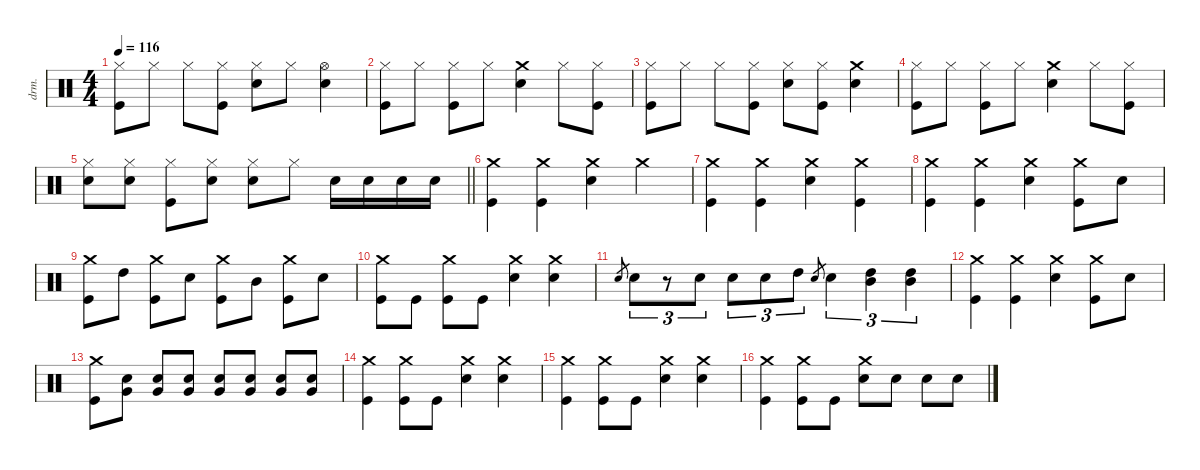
\defaultSystemsLayout 4
\hideDynamics
\bracketExtendMode nobrackets
\otherSystemsTrackNameOrientation horizontal
\track ("Drum" "drm.") {instrument percussion}
\staff {score}
\articulation defaults
\ts (4 4)
\tempo 116
\clef neutral
\ks c
("Kick (hit)" "Hi-Hat (closed)").8{dy f beam Down} "Hi-Hat (closed)".8{beam Down} "Hi-Hat (closed)".8{beam Down} ("Kick (hit)" "Hi-Hat (closed)").8{beam Down} ("Snare (hit) 2" "Hi-Hat (closed)").8{beam Down} "Hi-Hat (closed)".8{beam Down} ("Snare (hit) 2" "Hi-Hat (open)").4{beam Down} |
("Kick (hit)" "Hi-Hat (closed)").8{beam Down} "Hi-Hat (closed)".8{beam Down} ("Kick (hit)" "Hi-Hat (closed)").8{beam Down} "Hi-Hat (closed)".8{beam Down} ("Snare (hit) 2" "Crash medium (hit)").4{beam Down} "Hi-Hat (closed)".8{beam Down} ("Kick (hit)" "Hi-Hat (closed)").8{beam Down} |
("Kick (hit)" "Hi-Hat (closed)").8{beam Down} "Hi-Hat (closed)".8{beam Down} "Hi-Hat (closed)".8{beam Down} ("Kick (hit)" "Hi-Hat (closed)").8{beam Down} ("Snare (hit) 2" "Hi-Hat (closed)").8{beam Down} ("Kick (hit)" "Hi-Hat (closed)").8{beam Down} ("Snare (hit) 2" "Crash medium (hit)").4{beam Down} |
("Kick (hit)" "Hi-Hat (closed)").8{beam Down} "Hi-Hat (closed)".8{beam Down} ("Kick (hit)" "Hi-Hat (closed)").8{beam Down} "Hi-Hat (closed)".8{beam Down} ("Snare (hit) 2" "Crash medium (hit)").4{beam Down} "Hi-Hat (closed)".8{beam Down} ("Kick (hit)" "Hi-Hat (closed)").8{beam Down} |
\barLineRight lightlight
("Snare (hit) 2" "Hi-Hat (closed)").8{beam Down} ("Snare (hit) 2" "Hi-Hat (closed)").8{beam Down} ("Kick (hit)" "Hi-Hat (closed)").8{beam Down} ("Snare (hit) 2" "Hi-Hat (closed)").8{beam Down} ("Snare (hit) 2" "Hi-Hat (closed)").8{beam Down} "Hi-Hat (closed)".8{beam Down} "Snare (hit) 2".16{beam Down} "Snare (hit) 2".16{beam Down} "Snare (hit) 2".16{beam Down} "Snare (hit) 2".16{beam Down} |
("Kick (hit)" "Crash medium (hit)").4{beam Down} ("Kick (hit)" "Crash medium (hit)").4{beam Down} ("Snare (hit) 2" "Crash medium (hit)").4{beam Down} "Crash medium (hit)".4{beam Down} |
("Kick (hit)" "Crash medium (hit)").4{beam Down} ("Kick (hit)" "Crash medium (hit)").4{beam Down} ("Snare (hit) 2" "Crash medium (hit)").4{beam Down} ("Kick (hit)" "Crash medium (hit)").4{beam Down} |
("Kick (hit)" "Crash medium (hit)").4{beam Down} ("Kick (hit)" "Crash medium (hit)").4{beam Down} ("Snare (hit) 2" "Crash medium (hit)").4{beam Down} ("Kick (hit)" "Crash medium (hit)").8{beam Down} "Snare (hit) 2".8{beam Down} |
("Kick (hit)" "Crash medium (hit)").8{beam Down} "High Tom (hit)".8{beam Down} ("Kick (hit)" "Crash medium (hit)").8{beam Down} "Snare (hit) 2".8{beam Down} ("Kick (hit)" "Crash medium (hit)").8{beam Down} "Mid Tom (hit)".8{beam Down} ("Kick (hit)" "Crash medium (hit)").8{beam Down} "Snare (hit) 2".8{beam Down} |
("Kick (hit)" "Crash medium (hit)").8{beam Down} "Kick (hit)".8{beam Down} ("Kick (hit)" "Crash medium (hit)").8{beam Down} "Kick (hit)".8{beam Down} ("Snare (hit) 2" "Crash medium (hit)").4{beam Down} ("Snare (hit) 2" "Crash medium (hit)").4{beam Down} |
"Electric Snare (hit)".8{gr dy mf beam Up} "Snare (hit) 2".8{tu (3 2) dy f beam Down} r.8{tu (3 2) beam Down} "Snare (hit) 2".8{tu (3 2) beam Down} "Snare (hit) 2".8{tu (3 2) beam Down} "Snare (hit) 2".8{tu (3 2) beam Down} "High Tom (hit)".8{tu (3 2) beam Down} "Electric Snare (hit)".8{gr dy mf beam Up} "Snare (hit) 2".4{tu (3 2) dy f beam Down} ("Mid Tom (hit)" "High Tom (hit)").4{tu (3 2) beam Down} ("Mid Tom (hit)" "High Tom (hit)").4{tu (3 2) beam Down} |
("Kick (hit)" "Crash medium (hit)").4{beam Down} ("Kick (hit)" "Crash medium (hit)").4{beam Down} ("Snare (hit) 2" "Crash medium (hit)").4{beam Down} ("Kick (hit)" "Crash medium (hit)").8{beam Down} "Snare (hit) 2".8{beam Down} |
("Kick (hit)" "Crash medium (hit)").8{beam Down} ("Snare (hit) 2" "Very Low Tom (hit)").8{beam Down} ("Snare (hit) 2" "Very Low Tom (hit)").8{beam Up} ("Snare (hit) 2" "Very Low Tom (hit)").8{beam Up} ("Snare (hit) 2" "Very Low Tom (hit)").8{beam Up} ("Snare (hit) 2" "Very Low Tom (hit)").8{beam Up} ("Snare (hit) 2" "Very Low Tom (hit)").8{beam Up} ("Snare (hit) 2" "Very Low Tom (hit)").8{beam Up} |
("Kick (hit)" "Crash medium (hit)").4{beam Down} ("Kick (hit)" "Crash medium (hit)").8{beam Down} "Kick (hit)".8{beam Down} ("Snare (hit) 2" "Crash medium (hit)").4{beam Down} ("Snare (hit) 2" "Crash medium (hit)").4{beam Down} |
("Kick (hit)" "Crash medium (hit)").4{beam Down} ("Kick (hit)" "Crash medium (hit)").8{beam Down} "Kick (hit)".8{beam Down} ("Snare (hit) 2" "Crash medium (hit)").4{beam Down} ("Snare (hit) 2" "Crash medium (hit)").4{beam Down} |
("Kick (hit)" "Crash medium (hit)").4{beam Down} ("Kick (hit)" "Crash medium (hit)").8{beam Down} "Kick (hit)".8{beam Down} ("Snare (hit) 2" "Crash medium (hit)").8{beam Down} "Snare (hit) 2".8{beam Down} "Snare (hit) 2".8{beam Down} "Snare (hit) 2".8{beam Down}
